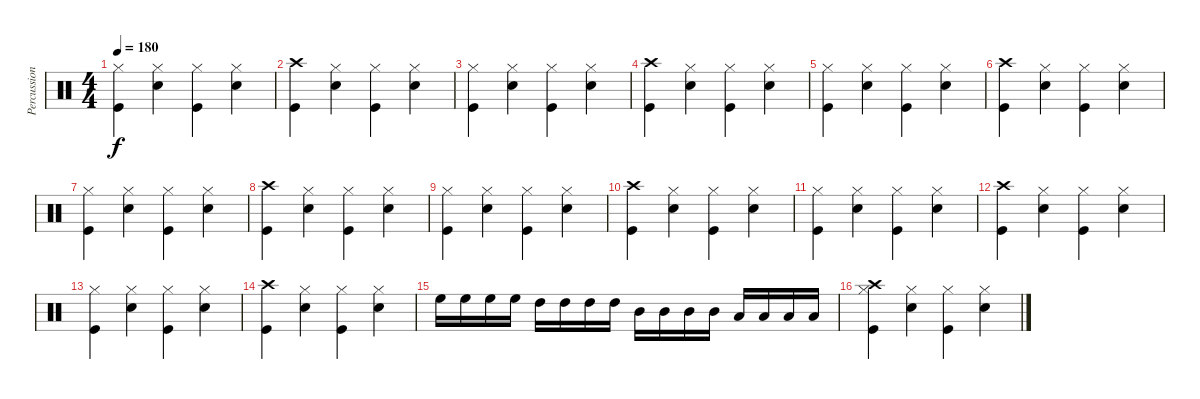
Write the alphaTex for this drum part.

\track ("Percussion" "Percussion") {instrument percussion}
\staff {score}
\articulation defaults
\ts (4 4)
\tempo 180
\clef neutral
\ks c
("Hi-Hat (closed)" "Kick (hit)").4{dy f} ("Hi-Hat (closed)" "Snare (hit) 2").4 ("Hi-Hat (closed)" "Kick (hit)").4 ("Hi-Hat (closed)" "Snare (hit) 2").4 |
("Crash high (hit)" "Kick (hit)").4 ("Hi-Hat (closed)" "Snare (hit) 2").4 ("Hi-Hat (closed)" "Kick (hit)").4 ("Hi-Hat (closed)" "Snare (hit) 2").4 |
("Hi-Hat (closed)" "Kick (hit)").4 ("Hi-Hat (closed)" "Snare (hit) 2").4 ("Hi-Hat (closed)" "Kick (hit)").4 ("Hi-Hat (closed)" "Snare (hit) 2").4 |
("Crash high (hit)" "Kick (hit)").4 ("Hi-Hat (closed)" "Snare (hit) 2").4 ("Hi-Hat (closed)" "Kick (hit)").4 ("Hi-Hat (closed)" "Snare (hit) 2").4 |
("Hi-Hat (closed)" "Kick (hit)").4 ("Hi-Hat (closed)" "Snare (hit) 2").4 ("Hi-Hat (closed)" "Kick (hit)").4 ("Hi-Hat (closed)" "Snare (hit) 2").4 |
("Crash high (hit)" "Kick (hit)").4 ("Hi-Hat (closed)" "Snare (hit) 2").4 ("Hi-Hat (closed)" "Kick (hit)").4 ("Hi-Hat (closed)" "Snare (hit) 2").4 |
("Hi-Hat (closed)" "Kick (hit)").4 ("Hi-Hat (closed)" "Snare (hit) 2").4 ("Hi-Hat (closed)" "Kick (hit)").4 ("Hi-Hat (closed)" "Snare (hit) 2").4 |
("Crash high (hit)" "Kick (hit)").4 ("Hi-Hat (closed)" "Snare (hit) 2").4 ("Hi-Hat (closed)" "Kick (hit)").4 ("Hi-Hat (closed)" "Snare (hit) 2").4 |
("Hi-Hat (closed)" "Kick (hit)").4 ("Hi-Hat (closed)" "Snare (hit) 2").4 ("Hi-Hat (closed)" "Kick (hit)").4 ("Hi-Hat (closed)" "Snare (hit) 2").4 |
("Crash high (hit)" "Kick (hit)").4 ("Hi-Hat (closed)" "Snare (hit) 2").4 ("Hi-Hat (closed)" "Kick (hit)").4 ("Hi-Hat (closed)" "Snare (hit) 2").4 |
("Hi-Hat (closed)" "Kick (hit)").4 ("Hi-Hat (closed)" "Snare (hit) 2").4 ("Hi-Hat (closed)" "Kick (hit)").4 ("Hi-Hat (closed)" "Snare (hit) 2").4 |
("Crash high (hit)" "Kick (hit)").4 ("Hi-Hat (closed)" "Snare (hit) 2").4 ("Hi-Hat (closed)" "Kick (hit)").4 ("Hi-Hat (closed)" "Snare (hit) 2").4 |
("Hi-Hat (closed)" "Kick (hit)").4 ("Hi-Hat (closed)" "Snare (hit) 2").4 ("Hi-Hat (closed)" "Kick (hit)").4 ("Hi-Hat (closed)" "Snare (hit) 2").4 |
("Crash high (hit)" "Kick (hit)").4 ("Hi-Hat (closed)" "Snare (hit) 2").4 ("Hi-Hat (closed)" "Kick (hit)").4 ("Hi-Hat (closed)" "Snare (hit) 2").4 |
"High Floor Tom (hit)".16 "High Floor Tom (hit)".16 "High Floor Tom (hit)".16 "High Floor Tom (hit)".16 "High Tom (hit)".16 "High Tom (hit)".16 "High Tom (hit)".16 "High Tom (hit)".16 "Mid Tom (hit)".16 "Mid Tom (hit)".16 "Mid Tom (hit)".16 "Mid Tom (hit)".16 "Low Tom (hit)".16 "Low Tom (hit)".16 "Low Tom (hit)".16 "Low Tom (hit)".16 |
("Crash high (hit)" "Hi-Hat (closed)" "Kick (hit)").4 ("Hi-Hat (closed)" "Snare (hit) 2").4 ("Hi-Hat (closed)" "Kick (hit)").4 ("Hi-Hat (closed)" "Snare (hit) 2").4
